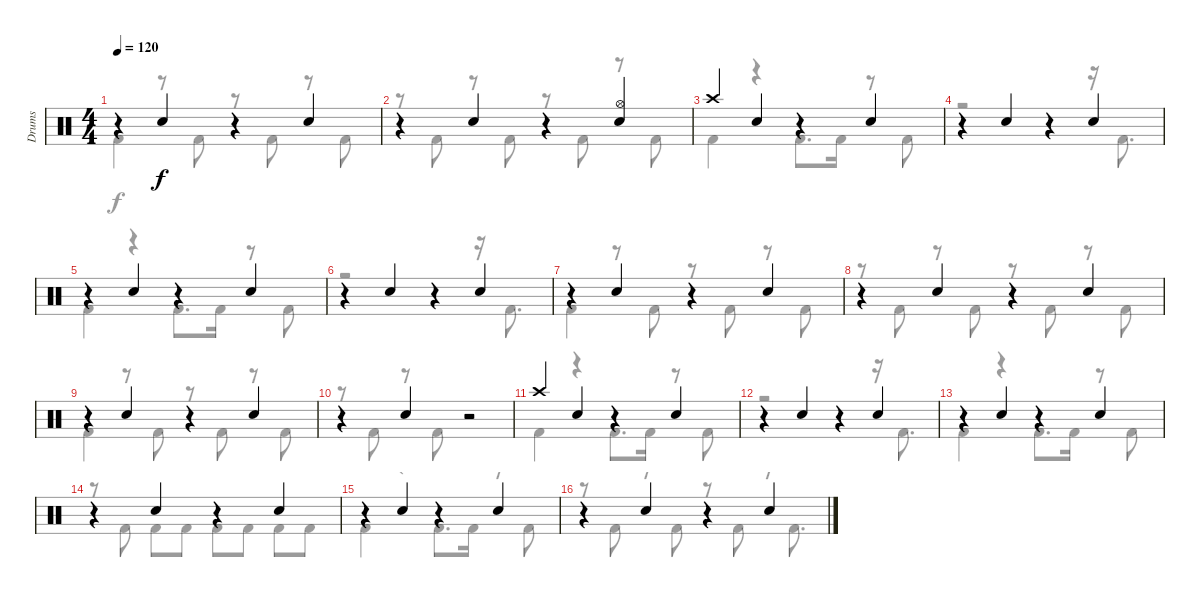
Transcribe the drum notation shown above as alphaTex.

\track ("Drums" "Drums") {instrument percussion}
\staff {score}
\articulation defaults
\voice
\ts (4 4)
\tempo 120
\clef neutral
\ks c
r.4{dy f} "Electric Snare (hit)".4 r.4 "Electric Snare (hit)".4 |
r.4 "Electric Snare (hit)".4 r.4 ("Electric Snare (hit)" "Hi-Hat (open)").4 |
"Crash high (hit)".4 "Electric Snare (hit)".4 r.4 "Electric Snare (hit)".4 |
r.4 "Electric Snare (hit)".4 r.4 "Electric Snare (hit)".4 |
r.4 "Electric Snare (hit)".4 r.4 "Electric Snare (hit)".4 |
r.4 "Electric Snare (hit)".4 r.4 "Electric Snare (hit)".4 |
r.4 "Electric Snare (hit)".4 r.4 "Electric Snare (hit)".4 |
r.4 "Electric Snare (hit)".4 r.4 "Electric Snare (hit)".4 |
r.4 "Electric Snare (hit)".4 r.4 "Electric Snare (hit)".4 |
r.4 "Electric Snare (hit)".4 r.2 |
"Crash high (hit)".4 "Electric Snare (hit)".4 r.4 "Electric Snare (hit)".4 |
r.4 "Electric Snare (hit)".4 r.4 "Electric Snare (hit)".4 |
r.4 "Electric Snare (hit)".4 r.4 "Electric Snare (hit)".4 |
r.4 "Electric Snare (hit)".4 r.4 "Electric Snare (hit)".4 |
r.4 "Electric Snare (hit)".4 r.4 "Electric Snare (hit)".4 |
r.4 "Electric Snare (hit)".4 r.4 "Electric Snare (hit)".4
\voice
\clef neutral
\ottava regular
\simile none
\ks c "Kick (hit) 2".4{dy f}
r.8 "Kick (hit) 2".8 r.8 "Kick (hit) 2".8 r.8 "Kick (hit) 2".8 |
r.8 "Kick (hit) 2".8 r.8 "Kick (hit) 2".8 r.8 "Kick (hit) 2".8 r.8 "Kick (hit) 2".8 |
"Kick (hit) 2".4 r.4 "Kick (hit) 2".8{d} "Kick (hit) 2".16 r.8 "Kick (hit) 2".8 |
r.2 r.4 r.16 "Kick (hit) 2".8{d} |
"Kick (hit) 2".4 r.4 "Kick (hit) 2".8{d} "Kick (hit) 2".16 r.8 "Kick (hit) 2".8 |
r.2 r.4 r.16 "Kick (hit) 2".8{d} |
"Kick (hit) 2".4 r.8 "Kick (hit) 2".8 r.8 "Kick (hit) 2".8 r.8 "Kick (hit) 2".8 |
r.8 "Kick (hit) 2".8 r.8 "Kick (hit) 2".8 r.8 "Kick (hit) 2".8 r.8 "Kick (hit) 2".8 |
"Kick (hit) 2".4 r.8 "Kick (hit) 2".8 r.8 "Kick (hit) 2".8 r.8 "Kick (hit) 2".8 |
r.8 "Kick (hit) 2".8 r.8 "Kick (hit) 2".8 r.2 |
"Kick (hit) 2".4 r.4 "Kick (hit) 2".8{d} "Kick (hit) 2".16 r.8 "Kick (hit) 2".8 |
r.2 r.4 r.16 "Kick (hit) 2".8{d} |
"Kick (hit) 2".4 r.4 "Kick (hit) 2".8{d} "Kick (hit) 2".16 r.8 "Kick (hit) 2".8 |
r.8 "Kick (hit) 2".8 "Kick (hit) 2".8 "Kick (hit) 2".8 "Kick (hit) 2".8 "Kick (hit) 2".8 "Kick (hit) 2".8 "Kick (hit) 2".8 |
"Kick (hit) 2".4 r.4 "Kick (hit) 2".8{d} "Kick (hit) 2".16 r.8 "Kick (hit) 2".8 |
r.8 "Kick (hit) 2".8 r.8 "Kick (hit) 2".8 r.8 "Kick (hit) 2".8 r.16 "Kick (hit) 2".8{d}
